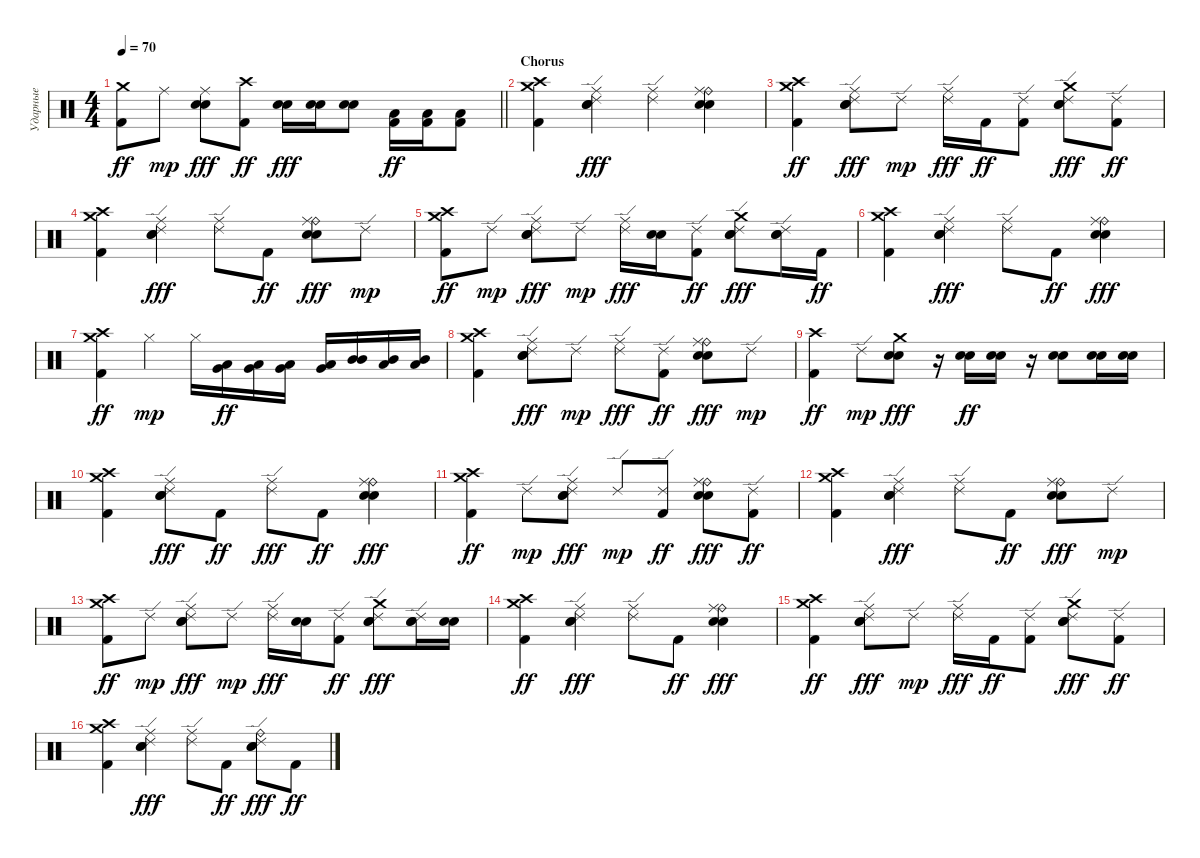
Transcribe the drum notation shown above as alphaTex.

\track ("Ударные" "Ударные") {instrument percussion}
\staff {score}
\articulation defaults
\ts (4 4)
\tempo 70
\clef neutral
\barLineRight lightlight
\ks aminor
("Crash medium (hit)" "Kick (hit) 2").8{dy ff} "Ride (middle)".8{dy mp} ("Ride (middle)" "Snare (hit) 2" "Electric Snare (hit)").8{dy fff} ("Crash high (hit)" "Kick (hit) 2").8{dy ff} ("Snare (hit) 2" "Electric Snare (hit)").16{dy fff} ("Snare (hit) 2" "Electric Snare (hit)").16 ("Snare (hit) 2" "Electric Snare (hit)").8 ("Low Floor Tom (hit)" "Kick (hit) 2").16{dy ff beam Down} ("Low Floor Tom (hit)" "Kick (hit) 2").16{beam Down} ("Low Floor Tom (hit)" "Kick (hit) 2").8{beam Down} |
\section ("" "Chorus")
("Crash high (hit)" "Crash medium (hit)" "Kick (hit) 2").4 ("Ride (edge) 2" "Ride (middle)" "Snare (hit) 2" "Electric Snare (hit)").4{dy fff} ("Ride (edge) 2" "Ride (middle)").4 ("Ride (bell)" "Ride (middle)" "Snare (hit) 2" "Electric Snare (hit)").4 |
("Crash high (hit)" "Crash medium (hit)" "Kick (hit) 2").4{dy ff} ("Ride (edge) 2" "Ride (middle)" "Snare (hit) 2" "Electric Snare (hit)").8{dy fff} "Ride (edge) 2".8{dy mp} ("Ride (edge) 2" "Ride (middle)").16{dy fff} "Kick (hit) 2".16{dy ff} ("Ride (edge) 2" "Kick (hit) 2").8 ("Ride (edge) 2" "Crash medium (hit)" "Snare (hit) 2" "Electric Snare (hit)").8{dy fff} ("Ride (edge) 2" "Kick (hit) 2").8{dy ff} |
("Crash high (hit)" "Crash medium (hit)" "Kick (hit) 2").4 ("Ride (edge) 2" "Ride (middle)" "Snare (hit) 2" "Electric Snare (hit)").4{dy fff} ("Ride (edge) 2" "Ride (middle)").8 "Kick (hit) 2".8{dy ff} ("Ride (bell)" "Ride (middle)" "Snare (hit) 2" "Electric Snare (hit)").8{dy fff} "Ride (edge) 2".8{dy mp} |
("Crash medium (hit)" "Crash high (hit)" "Kick (hit) 2").8{dy ff} "Ride (edge) 2".8{dy mp} ("Ride (edge) 2" "Ride (middle)" "Snare (hit) 2" "Electric Snare (hit)").8{dy fff} "Ride (edge) 2".8{dy mp} ("Ride (edge) 2" "Ride (middle)").16{dy fff} ("Snare (hit) 2" "Electric Snare (hit)").16 ("Ride (edge) 2" "Kick (hit) 2").8{dy ff} ("Ride (edge) 2" "Crash medium (hit)" "Snare (hit) 2" "Electric Snare (hit)").8{dy fff} ("Ride (edge) 2" "Snare (hit) 2" "Electric Snare (hit)").16 "Kick (hit) 2".16{dy ff} |
("Crash high (hit)" "Crash medium (hit)" "Kick (hit) 2").4 ("Ride (edge) 2" "Ride (middle)" "Snare (hit) 2" "Electric Snare (hit)").4{dy fff} ("Ride (edge) 2" "Ride (middle)").8 "Kick (hit) 2".8{dy ff} ("Ride (bell)" "Ride (middle)" "Snare (hit) 2" "Electric Snare (hit)").4{dy fff} |
("Crash high (hit)" "Crash medium (hit)" "Kick (hit) 2").4{dy ff} "Hi-Hat (closed)".4{dy mp} "Hi-Hat (closed)".16 ("Very Low Tom (hit)" "Low Floor Tom (hit)").16{dy ff} ("Very Low Tom (hit)" "Low Floor Tom (hit)").16 ("Very Low Tom (hit)" "Low Floor Tom (hit)").16 ("Very Low Tom (hit)" "Low Floor Tom (hit)").16 ("Mid Tom (hit)" "Mid Tom (hit)").16 ("Mid Tom (hit)" "Low Tom (hit)").16 ("Mid Tom (hit)" "Low Tom (hit)").16 |
("Crash high (hit)" "Crash medium (hit)" "Kick (hit) 2").4 ("Ride (edge) 2" "Ride (middle)" "Snare (hit) 2" "Electric Snare (hit)").8{dy fff} "Ride (edge) 2".8{dy mp} ("Ride (edge) 2" "Ride (middle)").8{dy fff} ("Ride (edge) 2" "Kick (hit) 2").8{dy ff} ("Ride (bell)" "Ride (middle)" "Snare (hit) 2" "Electric Snare (hit)").8{dy fff} "Ride (edge) 2".8{dy mp} |
("Crash high (hit)" "Kick (hit) 2").4{dy ff} "Ride (edge) 2".8{dy mp} ("Crash medium (hit)" "Snare (hit) 2" "Electric Snare (hit)").8{dy fff} r.16 ("Snare (hit) 2" "Electric Snare (hit)").16{dy ff} ("Snare (hit) 2" "Electric Snare (hit)").16 r.16 ("Snare (hit) 2" "Electric Snare (hit)").8 ("Snare (hit) 2" "Electric Snare (hit)").16 ("Snare (hit) 2" "Electric Snare (hit)").16 |
("Crash high (hit)" "Crash medium (hit)" "Kick (hit) 2").4 ("Ride (edge) 2" "Ride (middle)" "Snare (hit) 2" "Electric Snare (hit)").8{dy fff} "Kick (hit) 2".8{dy ff} ("Ride (edge) 2" "Ride (middle)").8{dy fff} "Kick (hit) 2".8{dy ff} ("Ride (bell)" "Ride (middle)" "Snare (hit) 2" "Electric Snare (hit)").4{dy fff} |
("Crash high (hit)" "Crash medium (hit)" "Kick (hit) 2").4{dy ff} "Ride (edge) 2".8{dy mp} ("Ride (edge) 2" "Ride (middle)" "Snare (hit) 2" "Electric Snare (hit)").8{dy fff} "Ride (edge) 2".8{dy mp} ("Ride (edge) 2" "Kick (hit) 2").8{dy ff} ("Ride (bell)" "Ride (middle)" "Snare (hit) 2" "Electric Snare (hit)").8{dy fff} ("Ride (edge) 2" "Kick (hit) 2").8{dy ff} |
("Crash high (hit)" "Crash medium (hit)" "Kick (hit) 2").4 ("Ride (edge) 2" "Ride (middle)" "Snare (hit) 2" "Electric Snare (hit)").4{dy fff} ("Ride (edge) 2" "Ride (middle)").8 "Kick (hit) 2".8{dy ff} ("Ride (bell)" "Ride (middle)" "Snare (hit) 2" "Electric Snare (hit)").8{dy fff} "Ride (edge) 2".8{dy mp} |
("Crash medium (hit)" "Crash high (hit)" "Kick (hit) 2").8{dy ff} "Ride (edge) 2".8{dy mp} ("Ride (edge) 2" "Ride (middle)" "Snare (hit) 2" "Electric Snare (hit)").8{dy fff} "Ride (edge) 2".8{dy mp} ("Ride (edge) 2" "Ride (middle)").16{dy fff} ("Snare (hit) 2" "Electric Snare (hit)").16 ("Ride (edge) 2" "Kick (hit) 2").8{dy ff} ("Ride (edge) 2" "Crash medium (hit)" "Snare (hit) 2" "Electric Snare (hit)").8{dy fff} ("Ride (edge) 2" "Snare (hit) 2" "Electric Snare (hit)").16 ("Snare (hit) 2" "Electric Snare (hit)").16 |
("Crash high (hit)" "Crash medium (hit)" "Kick (hit) 2").4{dy ff} ("Ride (edge) 2" "Ride (middle)" "Snare (hit) 2" "Electric Snare (hit)").4{dy fff} ("Ride (edge) 2" "Ride (middle)").8 "Kick (hit) 2".8{dy ff} ("Ride (bell)" "Ride (middle)" "Snare (hit) 2" "Electric Snare (hit)").4{dy fff} |
("Crash high (hit)" "Crash medium (hit)" "Kick (hit) 2").4{dy ff} ("Ride (edge) 2" "Ride (middle)" "Snare (hit) 2" "Electric Snare (hit)").8{dy fff} "Ride (edge) 2".8{dy mp} ("Ride (edge) 2" "Ride (middle)").16{dy fff} "Kick (hit) 2".16{dy ff} ("Ride (edge) 2" "Kick (hit) 2").8 ("Ride (edge) 2" "Crash medium (hit)" "Snare (hit) 2" "Electric Snare (hit)").8{dy fff} ("Ride (edge) 2" "Kick (hit) 2").8{dy ff} |
("Crash high (hit)" "Crash medium (hit)" "Kick (hit) 2").4 ("Ride (edge) 2" "Ride (middle)" "Snare (hit) 2" "Electric Snare (hit)").4{dy fff} ("Ride (edge) 2" "Ride (middle)").8 "Kick (hit) 2".8{dy ff} ("Ride (bell)" "Ride (edge) 2" "Snare (hit) 2" "Electric Snare (hit)").8{dy fff} "Kick (hit) 2".8{dy ff}
